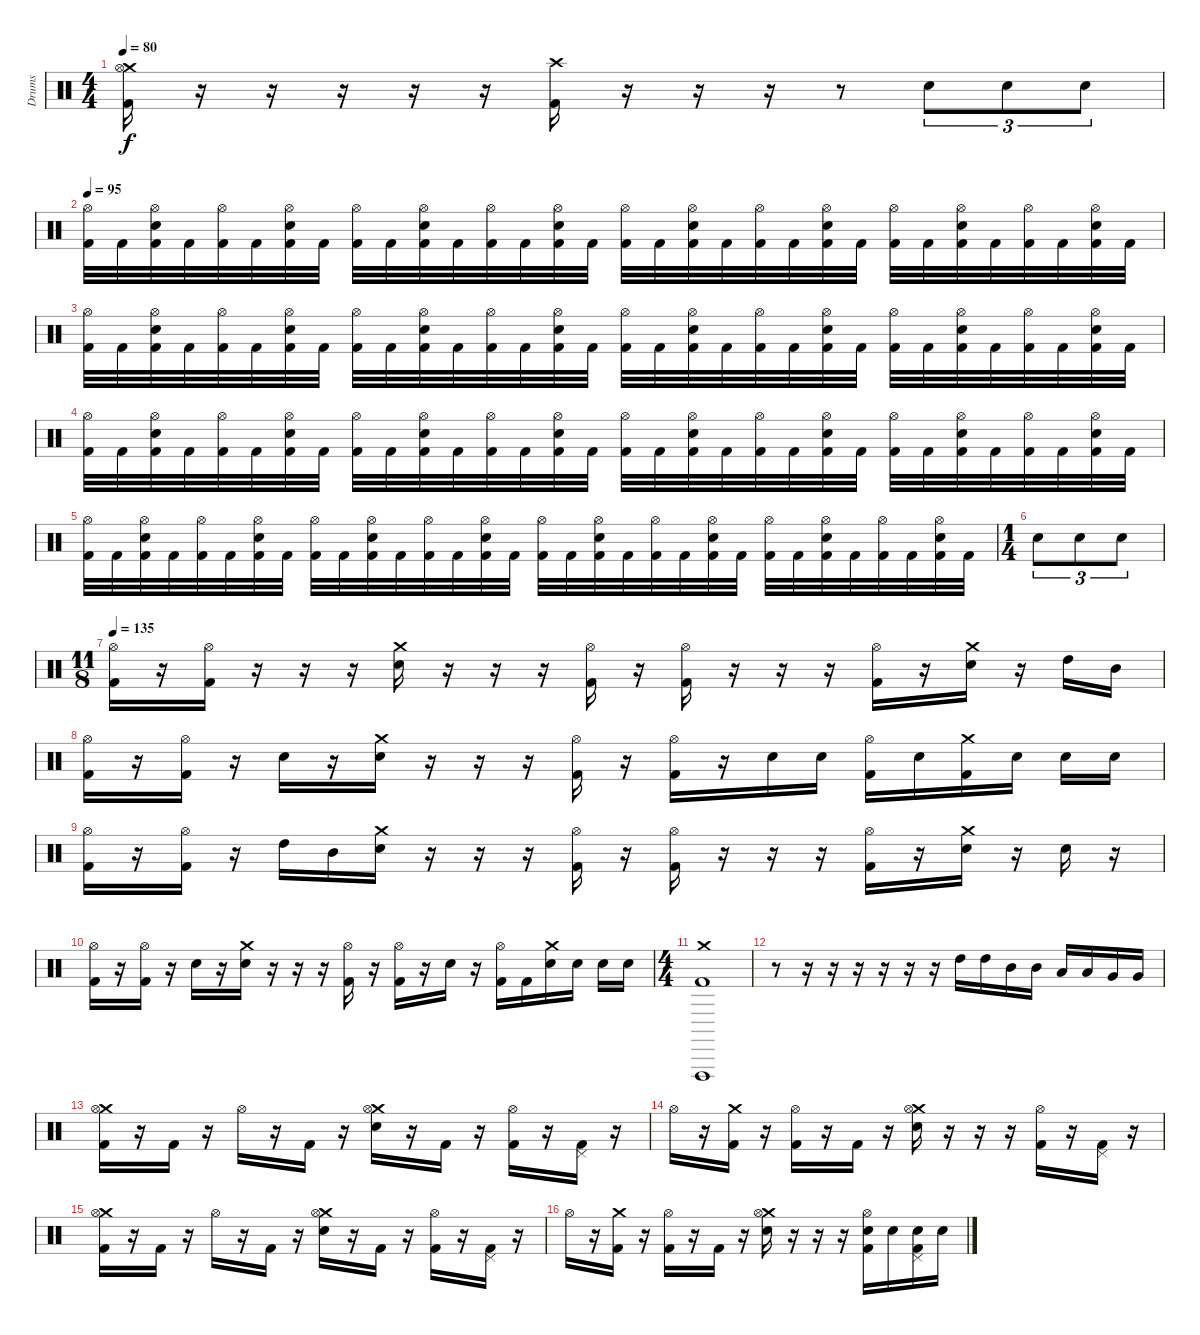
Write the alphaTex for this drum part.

\track ("Drums" "Drums") {instrument percussion}
\staff {score}
\articulation defaults
\ts (4 4)
\tempo 80
\clef neutral
\ks c
("Crash medium (hit)" "Hi-Hat (open)" "Kick (hit) 2").16{dy f} r.16 r.16 r.16 r.16 r.16 ("Crash high (hit)" "Kick (hit) 2").16 r.16 r.16 r.16 r.8 "Electric Snare (hit)".8{tu (3 2)} "Electric Snare (hit)".8{tu (3 2)} "Electric Snare (hit)".8{tu (3 2)} |
\tempo 95
("Hi-Hat (open)" "Kick (hit) 2").32 "Kick (hit) 2".32 ("Hi-Hat (open)" "Electric Snare (hit)" "Kick (hit) 2").32 "Kick (hit) 2".32 ("Hi-Hat (open)" "Kick (hit) 2").32 "Kick (hit) 2".32 ("Hi-Hat (open)" "Electric Snare (hit)" "Kick (hit) 2").32 "Kick (hit) 2".32 ("Hi-Hat (open)" "Kick (hit) 2").32 "Kick (hit) 2".32 ("Hi-Hat (open)" "Electric Snare (hit)" "Kick (hit) 2").32 "Kick (hit) 2".32 ("Hi-Hat (open)" "Kick (hit) 2").32 "Kick (hit) 2".32 ("Hi-Hat (open)" "Electric Snare (hit)" "Kick (hit) 2").32 "Kick (hit) 2".32 ("Hi-Hat (open)" "Kick (hit) 2").32 "Kick (hit) 2".32 ("Hi-Hat (open)" "Electric Snare (hit)" "Kick (hit) 2").32 "Kick (hit) 2".32 ("Hi-Hat (open)" "Kick (hit) 2").32 "Kick (hit) 2".32 ("Hi-Hat (open)" "Electric Snare (hit)" "Kick (hit) 2").32 "Kick (hit) 2".32 ("Hi-Hat (open)" "Kick (hit) 2").32 "Kick (hit) 2".32 ("Hi-Hat (open)" "Electric Snare (hit)" "Kick (hit) 2").32 "Kick (hit) 2".32 ("Hi-Hat (open)" "Kick (hit) 2").32 "Kick (hit) 2".32 ("Hi-Hat (open)" "Electric Snare (hit)" "Kick (hit) 2").32 "Kick (hit) 2".32 |
("Hi-Hat (open)" "Kick (hit) 2").32 "Kick (hit) 2".32 ("Hi-Hat (open)" "Electric Snare (hit)" "Kick (hit) 2").32 "Kick (hit) 2".32 ("Hi-Hat (open)" "Kick (hit) 2").32 "Kick (hit) 2".32 ("Hi-Hat (open)" "Electric Snare (hit)" "Kick (hit) 2").32 "Kick (hit) 2".32 ("Hi-Hat (open)" "Kick (hit) 2").32 "Kick (hit) 2".32 ("Hi-Hat (open)" "Electric Snare (hit)" "Kick (hit) 2").32 "Kick (hit) 2".32 ("Hi-Hat (open)" "Kick (hit) 2").32 "Kick (hit) 2".32 ("Hi-Hat (open)" "Electric Snare (hit)" "Kick (hit) 2").32 "Kick (hit) 2".32 ("Hi-Hat (open)" "Kick (hit) 2").32 "Kick (hit) 2".32 ("Hi-Hat (open)" "Electric Snare (hit)" "Kick (hit) 2").32 "Kick (hit) 2".32 ("Hi-Hat (open)" "Kick (hit) 2").32 "Kick (hit) 2".32 ("Hi-Hat (open)" "Electric Snare (hit)" "Kick (hit) 2").32 "Kick (hit) 2".32 ("Hi-Hat (open)" "Kick (hit) 2").32 "Kick (hit) 2".32 ("Hi-Hat (open)" "Electric Snare (hit)" "Kick (hit) 2").32 "Kick (hit) 2".32 ("Hi-Hat (open)" "Kick (hit) 2").32 "Kick (hit) 2".32 ("Hi-Hat (open)" "Electric Snare (hit)" "Kick (hit) 2").32 "Kick (hit) 2".32 |
("Hi-Hat (open)" "Kick (hit) 2").32 "Kick (hit) 2".32 ("Hi-Hat (open)" "Electric Snare (hit)" "Kick (hit) 2").32 "Kick (hit) 2".32 ("Hi-Hat (open)" "Kick (hit) 2").32 "Kick (hit) 2".32 ("Hi-Hat (open)" "Electric Snare (hit)" "Kick (hit) 2").32 "Kick (hit) 2".32 ("Hi-Hat (open)" "Kick (hit) 2").32 "Kick (hit) 2".32 ("Hi-Hat (open)" "Electric Snare (hit)" "Kick (hit) 2").32 "Kick (hit) 2".32 ("Hi-Hat (open)" "Kick (hit) 2").32 "Kick (hit) 2".32 ("Hi-Hat (open)" "Electric Snare (hit)" "Kick (hit) 2").32 "Kick (hit) 2".32 ("Hi-Hat (open)" "Kick (hit) 2").32 "Kick (hit) 2".32 ("Hi-Hat (open)" "Electric Snare (hit)" "Kick (hit) 2").32 "Kick (hit) 2".32 ("Hi-Hat (open)" "Kick (hit) 2").32 "Kick (hit) 2".32 ("Hi-Hat (open)" "Electric Snare (hit)" "Kick (hit) 2").32 "Kick (hit) 2".32 ("Hi-Hat (open)" "Kick (hit) 2").32 "Kick (hit) 2".32 ("Hi-Hat (open)" "Electric Snare (hit)" "Kick (hit) 2").32 "Kick (hit) 2".32 ("Hi-Hat (open)" "Kick (hit) 2").32 "Kick (hit) 2".32 ("Hi-Hat (open)" "Electric Snare (hit)" "Kick (hit) 2").32 "Kick (hit) 2".32 |
("Hi-Hat (open)" "Kick (hit) 2").32 "Kick (hit) 2".32 ("Hi-Hat (open)" "Electric Snare (hit)" "Kick (hit) 2").32 "Kick (hit) 2".32 ("Hi-Hat (open)" "Kick (hit) 2").32 "Kick (hit) 2".32 ("Hi-Hat (open)" "Electric Snare (hit)" "Kick (hit) 2").32 "Kick (hit) 2".32 ("Hi-Hat (open)" "Kick (hit) 2").32 "Kick (hit) 2".32 ("Hi-Hat (open)" "Electric Snare (hit)" "Kick (hit) 2").32 "Kick (hit) 2".32 ("Hi-Hat (open)" "Kick (hit) 2").32 "Kick (hit) 2".32 ("Hi-Hat (open)" "Electric Snare (hit)" "Kick (hit) 2").32 "Kick (hit) 2".32 ("Hi-Hat (open)" "Kick (hit) 2").32 "Kick (hit) 2".32 ("Hi-Hat (open)" "Electric Snare (hit)" "Kick (hit) 2").32 "Kick (hit) 2".32 ("Hi-Hat (open)" "Kick (hit) 2").32 "Kick (hit) 2".32 ("Hi-Hat (open)" "Electric Snare (hit)" "Kick (hit) 2").32 "Kick (hit) 2".32 ("Hi-Hat (open)" "Kick (hit) 2").32 "Kick (hit) 2".32 ("Hi-Hat (open)" "Electric Snare (hit)" "Kick (hit) 2").32 "Kick (hit) 2".32 ("Hi-Hat (open)" "Kick (hit) 2").32 "Kick (hit) 2".32 ("Hi-Hat (open)" "Electric Snare (hit)" "Kick (hit) 2").32 "Kick (hit) 2".32 |
\ts (1 4)
"Electric Snare (hit)".8{tu (3 2)} "Electric Snare (hit)".8{tu (3 2)} "Electric Snare (hit)".8{tu (3 2)} |
\ts (11 8)
\tempo 135
("Hi-Hat (open)" "Kick (hit) 2").16 r.16 ("Hi-Hat (open)" "Kick (hit) 2").16 r.16 r.16 r.16 ("Crash medium (hit)" "Electric Snare (hit)").16 r.16 r.16 r.16 ("Hi-Hat (open)" "Kick (hit) 2").16 r.16 ("Hi-Hat (open)" "Kick (hit) 2").16 r.16 r.16 r.16 ("Hi-Hat (open)" "Kick (hit) 2").16 r.16 ("Crash medium (hit)" "Electric Snare (hit)").16 r.16 "High Tom (hit)".16 "Mid Tom (hit)".16 |
("Hi-Hat (open)" "Kick (hit) 2").16 r.16 ("Hi-Hat (open)" "Kick (hit) 2").16 r.16 "Electric Snare (hit)".16 r.16 ("Crash medium (hit)" "Electric Snare (hit)").16 r.16 r.16 r.16 ("Hi-Hat (open)" "Kick (hit) 2").16 r.16 ("Hi-Hat (open)" "Kick (hit) 2").16 r.16 "Electric Snare (hit)".16 "Electric Snare (hit)".16 ("Hi-Hat (open)" "Kick (hit) 2").16 "Electric Snare (hit)".16 ("Crash medium (hit)" "Kick (hit) 2").16 "Electric Snare (hit)".16 "Electric Snare (hit)".16 "Electric Snare (hit)".16 |
("Hi-Hat (open)" "Kick (hit) 2").16 r.16 ("Hi-Hat (open)" "Kick (hit) 2").16 r.16 "High Tom (hit)".16 "Mid Tom (hit)".16 ("Crash medium (hit)" "Electric Snare (hit)").16 r.16 r.16 r.16 ("Hi-Hat (open)" "Kick (hit) 2").16 r.16 ("Hi-Hat (open)" "Kick (hit) 2").16 r.16 r.16 r.16 ("Hi-Hat (open)" "Kick (hit) 2").16 r.16 ("Crash medium (hit)" "Electric Snare (hit)").16 r.16 "Electric Snare (hit)".16 r.16 |
("Hi-Hat (open)" "Kick (hit) 2").16 r.16 ("Hi-Hat (open)" "Kick (hit) 2").16 r.16 "Electric Snare (hit)".16 r.16 ("Crash medium (hit)" "Electric Snare (hit)").16 r.16 r.16 r.16 ("Hi-Hat (open)" "Kick (hit) 2").16 r.16 ("Hi-Hat (open)" "Kick (hit) 2").16 r.16 "Electric Snare (hit)".16 r.16 ("Hi-Hat (open)" "Kick (hit) 2").16 "Kick (hit) 2".16 ("Crash medium (hit)" "Electric Snare (hit)").16 "Electric Snare (hit)".16 "Electric Snare (hit)".16 "Electric Snare (hit)".16 |
\ts (4 4)
("Crash medium (hit)" "Vibraslap (hit)" "Kick (hit) 2").1 |
r.8 r.16 r.16 r.16 r.16 r.16 r.16 "High Tom (hit)".16 "High Tom (hit)".16 "Mid Tom (hit)".16 "Mid Tom (hit)".16 "Low Tom (hit)".16 "Low Tom (hit)".16 "Very Low Tom (hit)".16 "Very Low Tom (hit)".16 |
("Crash medium (hit)" "Hi-Hat (open)" "Kick (hit) 2").16 r.16 "Kick (hit) 2".16 r.16 "Hi-Hat (open)".16 r.16 "Kick (hit) 2".16 r.16 ("Crash medium (hit)" "Hi-Hat (open)" "Electric Snare (hit)").16 r.16 "Kick (hit) 2".16 r.16 ("Hi-Hat (open)" "Kick (hit) 2").16 r.16 ("Pedal Hi-Hat (hit)" "Kick (hit) 2").16 r.16 |
"Hi-Hat (open)".16 r.16 ("Crash medium (hit)" "Kick (hit) 2").16 r.16 ("Hi-Hat (open)" "Kick (hit) 2").16 r.16 "Kick (hit) 2".16 r.16 ("Crash medium (hit)" "Hi-Hat (open)" "Electric Snare (hit)").16 r.16 r.16 r.16 ("Hi-Hat (open)" "Kick (hit) 2").16 r.16 ("Pedal Hi-Hat (hit)" "Kick (hit) 2").16 r.16 |
("Crash medium (hit)" "Hi-Hat (open)" "Kick (hit) 2").16 r.16 "Kick (hit) 2".16 r.16 "Hi-Hat (open)".16 r.16 "Kick (hit) 2".16 r.16 ("Crash medium (hit)" "Hi-Hat (open)" "Electric Snare (hit)").16 r.16 "Kick (hit) 2".16 r.16 ("Hi-Hat (open)" "Kick (hit) 2").16 r.16 ("Pedal Hi-Hat (hit)" "Kick (hit) 2").16 r.16 |
"Hi-Hat (open)".16 r.16 ("Crash medium (hit)" "Kick (hit) 2").16 r.16 ("Hi-Hat (open)" "Kick (hit) 2").16 r.16 "Kick (hit) 2".16 r.16 ("Crash medium (hit)" "Hi-Hat (open)" "Electric Snare (hit)").16 r.16 r.16 r.16 ("Hi-Hat (open)" "Electric Snare (hit)" "Kick (hit) 2").16 "Electric Snare (hit)".16 ("Pedal Hi-Hat (hit)" "Electric Snare (hit)" "Kick (hit) 2").16 "Electric Snare (hit)".16
